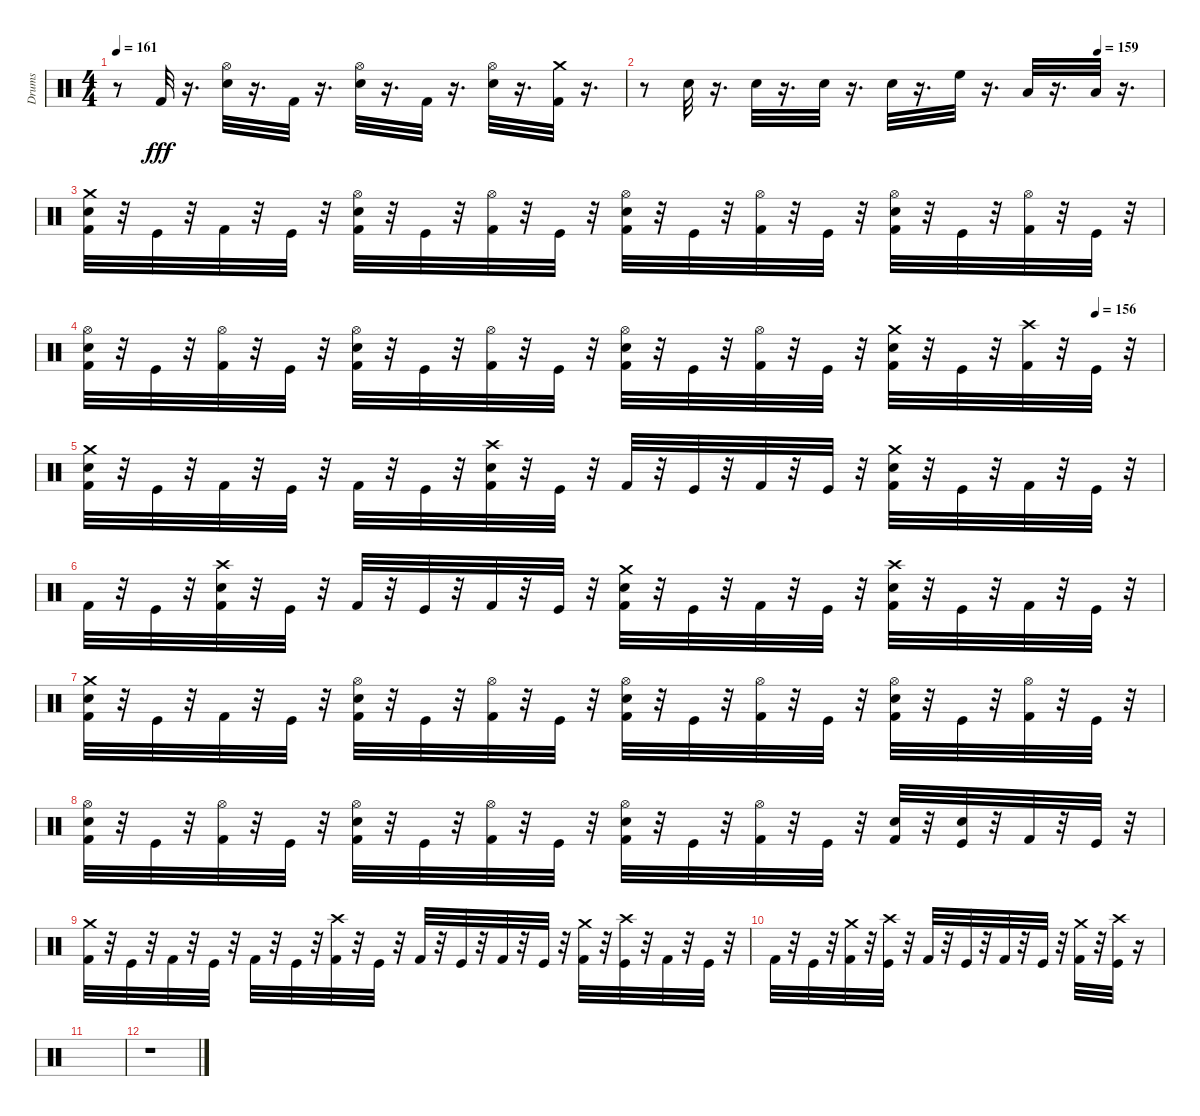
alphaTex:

\track ("Drums" "Drums") {instrument percussion}
\staff {score}
\articulation defaults
\ts (4 4)
\tempo 161
\clef neutral
\ks c
r.8{dy fff} "Kick (hit) 2".32 r.16{d} ("Snare (hit) 2" "Hi-Hat (open)").32 r.16{d} "Kick (hit) 2".32 r.16{d} ("Snare (hit) 2" "Hi-Hat (open)").32 r.16{d} "Kick (hit) 2".32 r.16{d} ("Snare (hit) 2" "Hi-Hat (open)").32 r.16{d} ("Kick (hit) 2" "Crash medium (hit)").32 r.16{d} |
\tempo (159 0.875)
r.8 "Snare (hit) 2".32 r.16{d} "Snare (hit) 2".32 r.16{d} "Snare (hit) 2".32 r.16{d} "Snare (hit) 2".32 r.16{d} "High Floor Tom (hit)".32 r.16{d} "Low Tom (hit)".32 r.16{d} "Low Floor Tom (hit)".32 r.16{d} |
("Kick (hit) 2" "Snare (hit) 2" "Crash medium (hit)").32 r.32 "Kick (hit)".32 r.32 "Kick (hit) 2".32 r.32 "Kick (hit)".32 r.32 ("Kick (hit) 2" "Snare (hit) 2" "Hi-Hat (open)").32 r.32 "Kick (hit)".32 r.32 ("Kick (hit) 2" "Hi-Hat (open)").32 r.32 "Kick (hit)".32 r.32 ("Kick (hit) 2" "Snare (hit) 2" "Hi-Hat (open)").32 r.32 "Kick (hit)".32 r.32 ("Kick (hit) 2" "Hi-Hat (open)").32 r.32 "Kick (hit)".32 r.32 ("Kick (hit) 2" "Snare (hit) 2" "Hi-Hat (open)").32 r.32 "Kick (hit)".32 r.32 ("Kick (hit) 2" "Hi-Hat (open)").32 r.32 "Kick (hit)".32 r.32 |
\tempo (156 0.9375)
("Kick (hit) 2" "Snare (hit) 2" "Hi-Hat (open)").32 r.32 "Kick (hit)".32 r.32 ("Kick (hit) 2" "Hi-Hat (open)").32 r.32 "Kick (hit)".32 r.32 ("Kick (hit) 2" "Snare (hit) 2" "Hi-Hat (open)").32 r.32 "Kick (hit)".32 r.32 ("Kick (hit) 2" "Hi-Hat (open)").32 r.32 "Kick (hit)".32 r.32 ("Kick (hit) 2" "Snare (hit) 2" "Hi-Hat (open)").32 r.32 "Kick (hit)".32 r.32 ("Kick (hit) 2" "Hi-Hat (open)").32 r.32 "Kick (hit)".32 r.32 ("Kick (hit) 2" "Snare (hit) 2" "Crash medium (hit)").32 r.32 "Kick (hit)".32 r.32 ("Kick (hit) 2" "Crash high (hit)").32 r.32 "Kick (hit)".32 r.32 |
("Crash medium (hit)" "Snare (hit) 2" "Kick (hit) 2").32 r.32 "Kick (hit)".32 r.32 "Kick (hit) 2".32 r.32 "Kick (hit)".32 r.32 "Kick (hit) 2".32 r.32 "Kick (hit)".32 r.32 ("Crash high (hit)" "Snare (hit) 2" "Kick (hit) 2").32 r.32 "Kick (hit)".32 r.32 "Kick (hit) 2".32 r.32 "Kick (hit)".32 r.32 "Kick (hit) 2".32 r.32 "Kick (hit)".32 r.32 ("Crash medium (hit)" "Snare (hit) 2" "Kick (hit) 2").32 r.32 "Kick (hit)".32 r.32 "Kick (hit) 2".32 r.32 "Kick (hit)".32 r.32 |
"Kick (hit) 2".32 r.32 "Kick (hit)".32 r.32 ("Crash high (hit)" "Snare (hit) 2" "Kick (hit) 2").32 r.32 "Kick (hit)".32 r.32 "Kick (hit) 2".32 r.32 "Kick (hit)".32 r.32 "Kick (hit) 2".32 r.32 "Kick (hit)".32 r.32 ("Crash medium (hit)" "Snare (hit) 2" "Kick (hit) 2").32 r.32 "Kick (hit)".32 r.32 "Kick (hit) 2".32 r.32 "Kick (hit)".32 r.32 ("Crash high (hit)" "Snare (hit) 2" "Kick (hit) 2").32 r.32 "Kick (hit)".32 r.32 "Kick (hit) 2".32 r.32 "Kick (hit)".32 r.32 |
("Snare (hit) 2" "Crash medium (hit)" "Kick (hit) 2").32 r.32 "Kick (hit)".32 r.32 "Kick (hit) 2".32 r.32 "Kick (hit)".32 r.32 ("Snare (hit) 2" "Hi-Hat (open)" "Kick (hit) 2").32 r.32 "Kick (hit)".32 r.32 ("Hi-Hat (open)" "Kick (hit) 2").32 r.32 "Kick (hit)".32 r.32 ("Snare (hit) 2" "Hi-Hat (open)" "Kick (hit) 2").32 r.32 "Kick (hit)".32 r.32 ("Hi-Hat (open)" "Kick (hit) 2").32 r.32 "Kick (hit)".32 r.32 ("Snare (hit) 2" "Hi-Hat (open)" "Kick (hit) 2").32 r.32 "Kick (hit)".32 r.32 ("Hi-Hat (open)" "Kick (hit) 2").32 r.32 "Kick (hit)".32 r.32 |
("Snare (hit) 2" "Hi-Hat (open)" "Kick (hit) 2").32 r.32 "Kick (hit)".32 r.32 ("Hi-Hat (open)" "Kick (hit) 2").32 r.32 "Kick (hit)".32 r.32 ("Snare (hit) 2" "Hi-Hat (open)" "Kick (hit) 2").32 r.32 "Kick (hit)".32 r.32 ("Hi-Hat (open)" "Kick (hit) 2").32 r.32 "Kick (hit)".32 r.32 ("Snare (hit) 2" "Hi-Hat (open)" "Kick (hit) 2").32 r.32 "Kick (hit)".32 r.32 ("Hi-Hat (open)" "Kick (hit) 2").32 r.32 "Kick (hit)".32 r.32 ("Snare (hit) 2" "Kick (hit) 2").32 r.32 ("Snare (hit) 2" "Kick (hit)").32 r.32 "Kick (hit) 2".32 r.32 "Kick (hit)".32 r.32 |
("Crash medium (hit)" "Kick (hit) 2").32 r.32 "Kick (hit)".32 r.32 "Kick (hit) 2".32 r.32 "Kick (hit)".32 r.32 "Kick (hit) 2".32 r.32 "Kick (hit)".32 r.32 ("Crash high (hit)" "Kick (hit) 2").32 r.32 "Kick (hit)".32 r.32 "Kick (hit) 2".32 r.32 "Kick (hit)".32 r.32 "Kick (hit) 2".32 r.32 "Kick (hit)".32 r.32 ("Crash medium (hit)" "Kick (hit) 2").32 r.32 ("Crash high (hit)" "Kick (hit)").32 r.32 "Kick (hit) 2".32 r.32 "Kick (hit)".32 r.32 |
"Kick (hit) 2".32 r.32 "Kick (hit)".32 r.32 ("Crash medium (hit)" "Kick (hit) 2").32 r.32 ("Crash high (hit)" "Kick (hit)").32 r.32 "Kick (hit) 2".32 r.32 "Kick (hit)".32 r.32 "Kick (hit) 2".32 r.32 "Kick (hit)".32 r.32 ("Crash medium (hit)" "Kick (hit) 2").32 r.32 ("Crash high (hit)" "Kick (hit)").32 r.16 |
|
r.1
